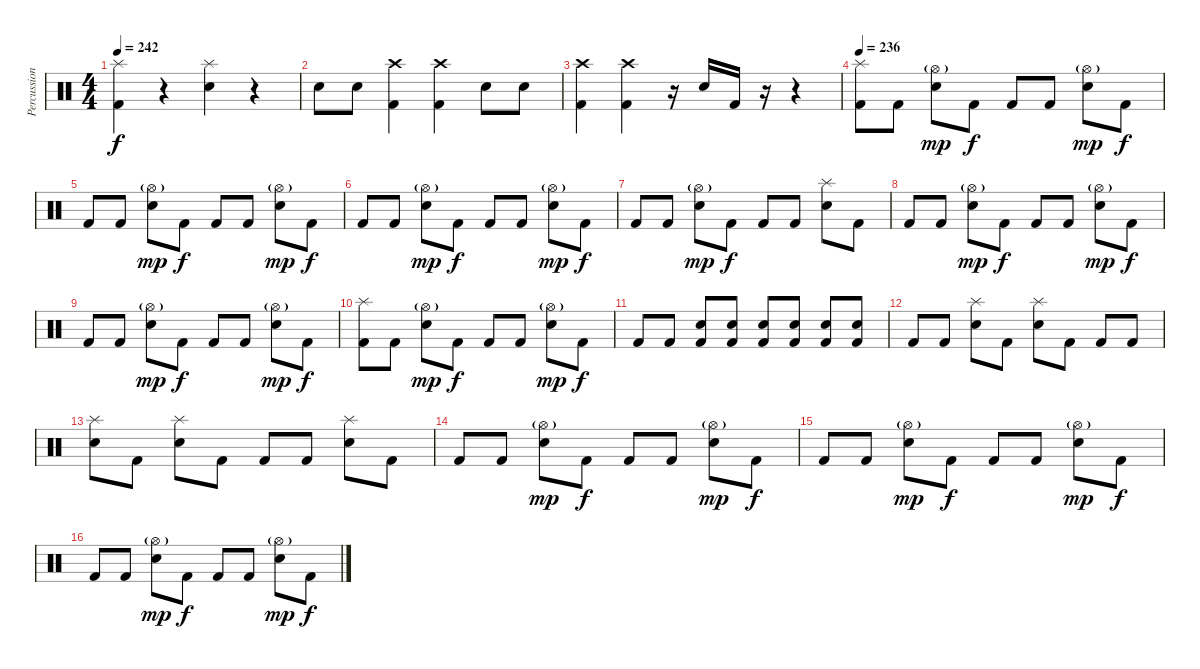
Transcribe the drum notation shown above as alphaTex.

\track ("Percussion" "Percussion") {instrument percussion}
\staff {score}
\articulation defaults
\ts (4 4)
\tempo 242
\clef neutral
\ks c
("Splash (hit)" "Kick (hit) 2").4{dy f} r.4 ("Splash (hit)" "Electric Snare (hit)").4 r.4 |
"Electric Snare (hit)".8 "Electric Snare (hit)".8 ("Crash high (hit)" "Kick (hit) 2").4 ("Crash high (hit)" "Kick (hit) 2").4 "Electric Snare (hit)".8 "Electric Snare (hit)".8 |
("Crash high (hit)" "Kick (hit) 2").4 ("Crash high (hit)" "Kick (hit) 2").4 r.16 "Electric Snare (hit)".16 "Kick (hit) 2".16 r.16 r.4 |
\tempo 236
("Splash (hit)" "Kick (hit) 2").8 "Kick (hit) 2".8 ("Hi-Hat (open)"{g} "Electric Snare (hit)").8{dy mp} "Kick (hit) 2".8{dy f} "Kick (hit) 2".8 "Kick (hit) 2".8 ("Hi-Hat (open)"{g} "Electric Snare (hit)").8{dy mp} "Kick (hit) 2".8{dy f} |
"Kick (hit) 2".8 "Kick (hit) 2".8 ("Hi-Hat (open)"{g} "Electric Snare (hit)").8{dy mp} "Kick (hit) 2".8{dy f} "Kick (hit) 2".8 "Kick (hit) 2".8 ("Hi-Hat (open)"{g} "Electric Snare (hit)").8{dy mp} "Kick (hit) 2".8{dy f} |
"Kick (hit) 2".8 "Kick (hit) 2".8 ("Hi-Hat (open)"{g} "Electric Snare (hit)").8{dy mp} "Kick (hit) 2".8{dy f} "Kick (hit) 2".8 "Kick (hit) 2".8 ("Hi-Hat (open)"{g} "Electric Snare (hit)").8{dy mp} "Kick (hit) 2".8{dy f} |
"Kick (hit) 2".8 "Kick (hit) 2".8 ("Hi-Hat (open)"{g} "Electric Snare (hit)").8{dy mp} "Kick (hit) 2".8{dy f} "Kick (hit) 2".8 "Kick (hit) 2".8 ("Splash (hit)" "Electric Snare (hit)").8 "Kick (hit) 2".8 |
"Kick (hit) 2".8 "Kick (hit) 2".8 ("Hi-Hat (open)"{g} "Electric Snare (hit)").8{dy mp} "Kick (hit) 2".8{dy f} "Kick (hit) 2".8 "Kick (hit) 2".8 ("Hi-Hat (open)"{g} "Electric Snare (hit)").8{dy mp} "Kick (hit) 2".8{dy f} |
"Kick (hit) 2".8 "Kick (hit) 2".8 ("Hi-Hat (open)"{g} "Electric Snare (hit)").8{dy mp} "Kick (hit) 2".8{dy f} "Kick (hit) 2".8 "Kick (hit) 2".8 ("Hi-Hat (open)"{g} "Electric Snare (hit)").8{dy mp} "Kick (hit) 2".8{dy f} |
("Splash (hit)" "Kick (hit) 2").8 "Kick (hit) 2".8 ("Hi-Hat (open)"{g} "Electric Snare (hit)").8{dy mp} "Kick (hit) 2".8{dy f} "Kick (hit) 2".8 "Kick (hit) 2".8 ("Hi-Hat (open)"{g} "Electric Snare (hit)").8{dy mp} "Kick (hit) 2".8{dy f} |
"Kick (hit) 2".8 "Kick (hit) 2".8 ("Electric Snare (hit)" "Kick (hit) 2").8 ("Electric Snare (hit)" "Kick (hit) 2").8 ("Electric Snare (hit)" "Kick (hit) 2").8 ("Electric Snare (hit)" "Kick (hit) 2").8 ("Electric Snare (hit)" "Kick (hit) 2").8 ("Electric Snare (hit)" "Kick (hit) 2").8 |
"Kick (hit) 2".8 "Kick (hit) 2".8 ("Splash (hit)" "Electric Snare (hit)").8 "Kick (hit) 2".8 ("Splash (hit)" "Electric Snare (hit)").8 "Kick (hit) 2".8 "Kick (hit) 2".8 "Kick (hit) 2".8 |
("Splash (hit)" "Electric Snare (hit)").8 "Kick (hit) 2".8 ("Splash (hit)" "Electric Snare (hit)").8 "Kick (hit) 2".8 "Kick (hit) 2".8 "Kick (hit) 2".8 ("Splash (hit)" "Electric Snare (hit)").8 "Kick (hit) 2".8 |
"Kick (hit) 2".8 "Kick (hit) 2".8 ("Hi-Hat (open)"{g} "Electric Snare (hit)").8{dy mp} "Kick (hit) 2".8{dy f} "Kick (hit) 2".8 "Kick (hit) 2".8 ("Hi-Hat (open)"{g} "Electric Snare (hit)").8{dy mp} "Kick (hit) 2".8{dy f} |
"Kick (hit) 2".8 "Kick (hit) 2".8 ("Hi-Hat (open)"{g} "Electric Snare (hit)").8{dy mp} "Kick (hit) 2".8{dy f} "Kick (hit) 2".8 "Kick (hit) 2".8 ("Hi-Hat (open)"{g} "Electric Snare (hit)").8{dy mp} "Kick (hit) 2".8{dy f} |
"Kick (hit) 2".8 "Kick (hit) 2".8 ("Hi-Hat (open)"{g} "Electric Snare (hit)").8{dy mp} "Kick (hit) 2".8{dy f} "Kick (hit) 2".8 "Kick (hit) 2".8 ("Hi-Hat (open)"{g} "Electric Snare (hit)").8{dy mp} "Kick (hit) 2".8{dy f}
